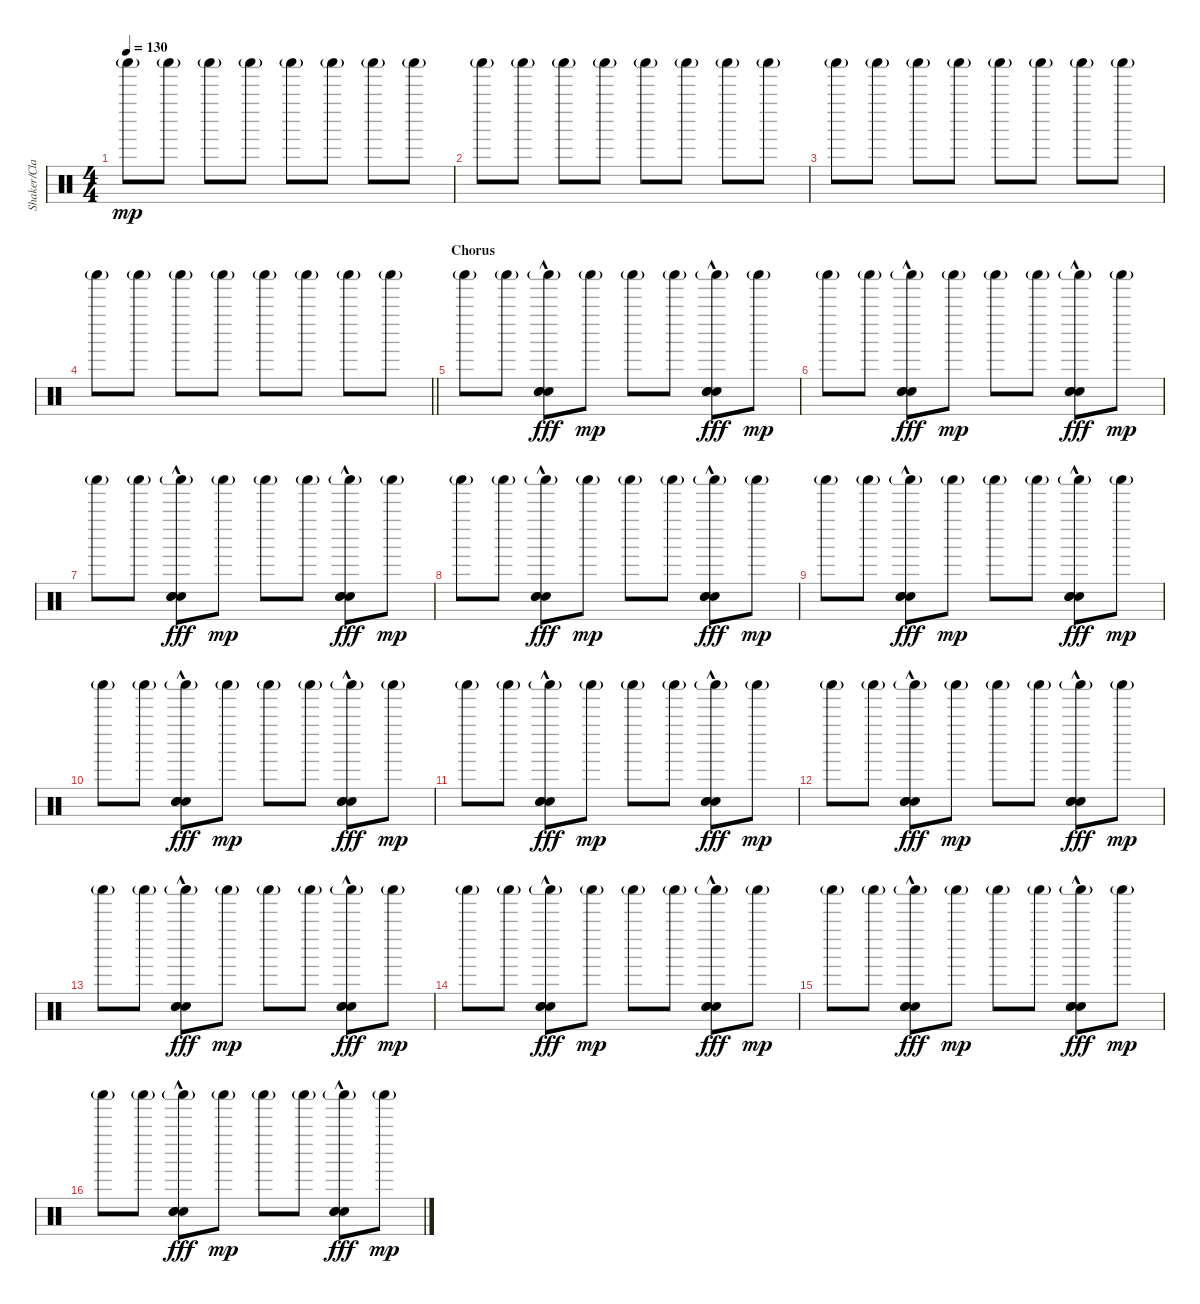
\track ("Shaker/Claps" "Shaker/Cla") {instrument percussion}
\staff {score}
\articulation defaults
\ts (4 4)
\tempo 130
\clef neutral
\ks c "Shaker (hit)"{g}.8{dy mp} "Shaker (hit)"{g}.8 "Shaker (hit)"{g}.8 "Shaker (hit)"{g}.8 "Shaker (hit)"{g}.8 "Shaker (hit)"{g}.8 "Shaker (hit)"{g}.8 "Shaker (hit)"{g}.8
|
"Shaker (hit)"{g}.8 "Shaker (hit)"{g}.8 "Shaker (hit)"{g}.8 "Shaker (hit)"{g}.8 "Shaker (hit)"{g}.8 "Shaker (hit)"{g}.8 "Shaker (hit)"{g}.8 "Shaker (hit)"{g}.8 |
"Shaker (hit)"{g}.8 "Shaker (hit)"{g}.8 "Shaker (hit)"{g}.8 "Shaker (hit)"{g}.8 "Shaker (hit)"{g}.8 "Shaker (hit)"{g}.8 "Shaker (hit)"{g}.8 "Shaker (hit)"{g}.8 |
\barLineRight lightlight "Shaker (hit)"{g}.8 "Shaker (hit)"{g}.8 "Shaker (hit)"{g}.8 "Shaker (hit)"{g}.8 "Shaker (hit)"{g}.8 "Shaker (hit)"{g}.8 "Shaker (hit)"{g}.8 "Shaker (hit)"{g}.8
|
\section ("" "Chorus")
"Shaker (hit)"{g}.8 "Shaker (hit)"{g}.8 ("Shaker (hit)"{g} "Hand Clap (hit)"{hac} "Hand Clap (hit)"{hac} "Hand Clap (hit)"{hac}).8{dy fff} "Shaker (hit)"{g}.8{dy mp} "Shaker (hit)"{g}.8 "Shaker (hit)"{g}.8 ("Shaker (hit)"{g} "Hand Clap (hit)"{hac} "Hand Clap (hit)"{hac} "Hand Clap (hit)"{hac}).8{dy fff} "Shaker (hit)"{g}.8{dy mp} |
"Shaker (hit)"{g}.8 "Shaker (hit)"{g}.8 ("Shaker (hit)"{g} "Hand Clap (hit)"{hac} "Hand Clap (hit)"{hac} "Hand Clap (hit)"{hac}).8{dy fff} "Shaker (hit)"{g}.8{dy mp} "Shaker (hit)"{g}.8 "Shaker (hit)"{g}.8 ("Shaker (hit)"{g} "Hand Clap (hit)"{hac} "Hand Clap (hit)"{hac} "Hand Clap (hit)"{hac}).8{dy fff} "Shaker (hit)"{g}.8{dy mp} |
"Shaker (hit)"{g}.8 "Shaker (hit)"{g}.8 ("Shaker (hit)"{g} "Hand Clap (hit)"{hac} "Hand Clap (hit)"{hac} "Hand Clap (hit)"{hac}).8{dy fff} "Shaker (hit)"{g}.8{dy mp} "Shaker (hit)"{g}.8 "Shaker (hit)"{g}.8 ("Shaker (hit)"{g} "Hand Clap (hit)"{hac} "Hand Clap (hit)"{hac} "Hand Clap (hit)"{hac}).8{dy fff} "Shaker (hit)"{g}.8{dy mp} |
"Shaker (hit)"{g}.8 "Shaker (hit)"{g}.8 ("Shaker (hit)"{g} "Hand Clap (hit)"{hac} "Hand Clap (hit)"{hac} "Hand Clap (hit)"{hac}).8{dy fff} "Shaker (hit)"{g}.8{dy mp} "Shaker (hit)"{g}.8 "Shaker (hit)"{g}.8 ("Shaker (hit)"{g} "Hand Clap (hit)"{hac} "Hand Clap (hit)"{hac} "Hand Clap (hit)"{hac}).8{dy fff} "Shaker (hit)"{g}.8{dy mp} |
"Shaker (hit)"{g}.8 "Shaker (hit)"{g}.8 ("Shaker (hit)"{g} "Hand Clap (hit)"{hac} "Hand Clap (hit)"{hac} "Hand Clap (hit)"{hac}).8{dy fff} "Shaker (hit)"{g}.8{dy mp} "Shaker (hit)"{g}.8 "Shaker (hit)"{g}.8 ("Shaker (hit)"{g} "Hand Clap (hit)"{hac} "Hand Clap (hit)"{hac} "Hand Clap (hit)"{hac}).8{dy fff} "Shaker (hit)"{g}.8{dy mp} |
"Shaker (hit)"{g}.8 "Shaker (hit)"{g}.8 ("Shaker (hit)"{g} "Hand Clap (hit)"{hac} "Hand Clap (hit)"{hac} "Hand Clap (hit)"{hac}).8{dy fff} "Shaker (hit)"{g}.8{dy mp} "Shaker (hit)"{g}.8 "Shaker (hit)"{g}.8 ("Shaker (hit)"{g} "Hand Clap (hit)"{hac} "Hand Clap (hit)"{hac} "Hand Clap (hit)"{hac}).8{dy fff} "Shaker (hit)"{g}.8{dy mp} |
"Shaker (hit)"{g}.8 "Shaker (hit)"{g}.8 ("Shaker (hit)"{g} "Hand Clap (hit)"{hac} "Hand Clap (hit)"{hac} "Hand Clap (hit)"{hac}).8{dy fff} "Shaker (hit)"{g}.8{dy mp} "Shaker (hit)"{g}.8 "Shaker (hit)"{g}.8 ("Shaker (hit)"{g} "Hand Clap (hit)"{hac} "Hand Clap (hit)"{hac} "Hand Clap (hit)"{hac}).8{dy fff} "Shaker (hit)"{g}.8{dy mp} |
"Shaker (hit)"{g}.8 "Shaker (hit)"{g}.8 ("Shaker (hit)"{g} "Hand Clap (hit)"{hac} "Hand Clap (hit)"{hac} "Hand Clap (hit)"{hac}).8{dy fff} "Shaker (hit)"{g}.8{dy mp} "Shaker (hit)"{g}.8 "Shaker (hit)"{g}.8 ("Shaker (hit)"{g} "Hand Clap (hit)"{hac} "Hand Clap (hit)"{hac} "Hand Clap (hit)"{hac}).8{dy fff} "Shaker (hit)"{g}.8{dy mp} |
"Shaker (hit)"{g}.8 "Shaker (hit)"{g}.8 ("Shaker (hit)"{g} "Hand Clap (hit)"{hac} "Hand Clap (hit)"{hac} "Hand Clap (hit)"{hac}).8{dy fff} "Shaker (hit)"{g}.8{dy mp} "Shaker (hit)"{g}.8 "Shaker (hit)"{g}.8 ("Shaker (hit)"{g} "Hand Clap (hit)"{hac} "Hand Clap (hit)"{hac} "Hand Clap (hit)"{hac}).8{dy fff} "Shaker (hit)"{g}.8{dy mp} |
"Shaker (hit)"{g}.8 "Shaker (hit)"{g}.8 ("Shaker (hit)"{g} "Hand Clap (hit)"{hac} "Hand Clap (hit)"{hac} "Hand Clap (hit)"{hac}).8{dy fff} "Shaker (hit)"{g}.8{dy mp} "Shaker (hit)"{g}.8 "Shaker (hit)"{g}.8 ("Shaker (hit)"{g} "Hand Clap (hit)"{hac} "Hand Clap (hit)"{hac} "Hand Clap (hit)"{hac}).8{dy fff} "Shaker (hit)"{g}.8{dy mp} |
"Shaker (hit)"{g}.8 "Shaker (hit)"{g}.8 ("Shaker (hit)"{g} "Hand Clap (hit)"{hac} "Hand Clap (hit)"{hac} "Hand Clap (hit)"{hac}).8{dy fff} "Shaker (hit)"{g}.8{dy mp} "Shaker (hit)"{g}.8 "Shaker (hit)"{g}.8 ("Shaker (hit)"{g} "Hand Clap (hit)"{hac} "Hand Clap (hit)"{hac} "Hand Clap (hit)"{hac}).8{dy fff} "Shaker (hit)"{g}.8{dy mp} |
"Shaker (hit)"{g}.8 "Shaker (hit)"{g}.8 ("Shaker (hit)"{g} "Hand Clap (hit)"{hac} "Hand Clap (hit)"{hac} "Hand Clap (hit)"{hac}).8{dy fff} "Shaker (hit)"{g}.8{dy mp} "Shaker (hit)"{g}.8 "Shaker (hit)"{g}.8 ("Shaker (hit)"{g} "Hand Clap (hit)"{hac} "Hand Clap (hit)"{hac} "Hand Clap (hit)"{hac}).8{dy fff} "Shaker (hit)"{g}.8{dy mp}
